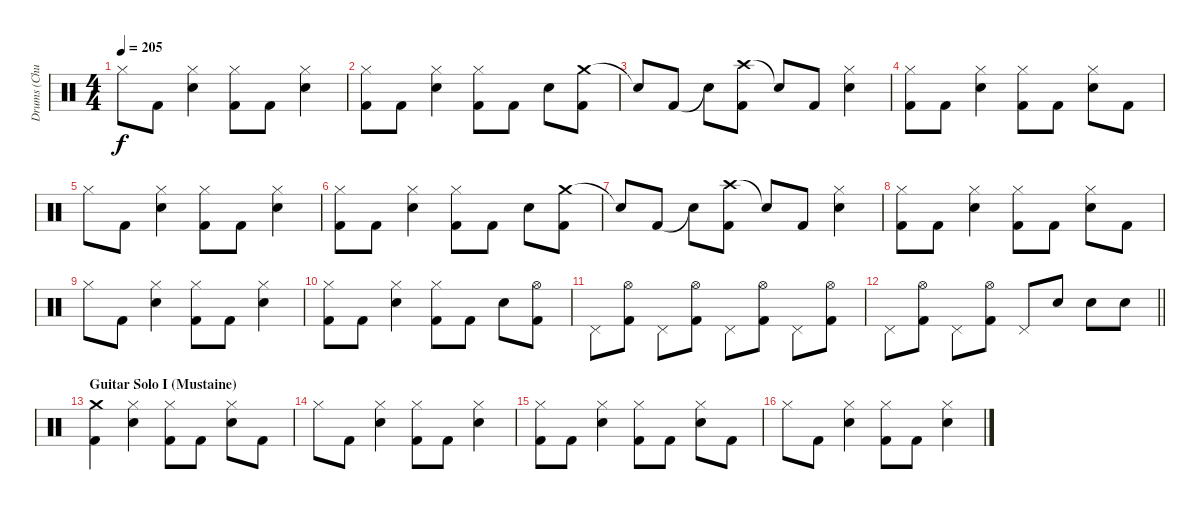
\track ("Drums (Chuck Behler)" "Drums (Chu") {instrument percussion}
\staff {score}
\articulation defaults
\ts (4 4)
\tempo 205
\clef neutral
\ks c "Hi-Hat (closed)".8{dy f} "Kick (hit) 2".8
("Hi-Hat (closed)" "Electric Snare (hit)").4 ("Hi-Hat (closed)" "Kick (hit) 2").8 "Kick (hit) 2".8 ("Hi-Hat (closed)" "Electric Snare (hit)").4 |
("Hi-Hat (closed)" "Kick (hit) 2").8 "Kick (hit) 2".8 ("Hi-Hat (closed)" "Electric Snare (hit)").4 ("Hi-Hat (closed)" "Kick (hit) 2").8 "Kick (hit) 2".8 "Electric Snare (hit)".8 ("Crash medium (hit)" "Kick (hit) 2").8 |
"Snare (hit)"{t}.8 "Kick (hit) 2".8 "Snare (hit)"{t}.8 ("Crash high (hit)" "Kick (hit) 2").8 "Snare (hit)"{t}.8 "Kick (hit) 2".8 ("Hi-Hat (closed)" "Electric Snare (hit)").4 |
("Hi-Hat (closed)" "Kick (hit) 2").8 "Kick (hit) 2".8 ("Hi-Hat (closed)" "Electric Snare (hit)").4 ("Hi-Hat (closed)" "Kick (hit) 2").8 "Kick (hit) 2".8 ("Hi-Hat (closed)" "Electric Snare (hit)").8 "Kick (hit) 2".8 |
"Hi-Hat (closed)".8 "Kick (hit) 2".8 ("Hi-Hat (closed)" "Electric Snare (hit)").4 ("Hi-Hat (closed)" "Kick (hit) 2").8 "Kick (hit) 2".8 ("Hi-Hat (closed)" "Electric Snare (hit)").4 |
("Hi-Hat (closed)" "Kick (hit) 2").8 "Kick (hit) 2".8 ("Hi-Hat (closed)" "Electric Snare (hit)").4 ("Hi-Hat (closed)" "Kick (hit) 2").8 "Kick (hit) 2".8 "Electric Snare (hit)".8 ("Crash medium (hit)" "Kick (hit) 2").8 |
"Snare (hit)"{t}.8 "Kick (hit) 2".8 "Snare (hit)"{t}.8 ("Crash high (hit)" "Kick (hit) 2").8 "Snare (hit)"{t}.8 "Kick (hit) 2".8 ("Hi-Hat (closed)" "Electric Snare (hit)").4 |
("Hi-Hat (closed)" "Kick (hit) 2").8 "Kick (hit) 2".8 ("Hi-Hat (closed)" "Electric Snare (hit)").4 ("Hi-Hat (closed)" "Kick (hit) 2").8 "Kick (hit) 2".8 ("Hi-Hat (closed)" "Electric Snare (hit)").8 "Kick (hit) 2".8 |
"Hi-Hat (closed)".8 "Kick (hit) 2".8 ("Hi-Hat (closed)" "Electric Snare (hit)").4 ("Hi-Hat (closed)" "Kick (hit) 2").8 "Kick (hit) 2".8 ("Hi-Hat (closed)" "Electric Snare (hit)").4 |
("Hi-Hat (closed)" "Kick (hit) 2").8 "Kick (hit) 2".8 ("Hi-Hat (closed)" "Electric Snare (hit)").4 ("Hi-Hat (closed)" "Kick (hit) 2").8 "Kick (hit) 2".8 "Electric Snare (hit)".8 ("Hi-Hat (open)" "Kick (hit) 2").8 |
"Pedal Hi-Hat (hit)".8 ("Hi-Hat (open)" "Kick (hit) 2").8 "Pedal Hi-Hat (hit)".8 ("Hi-Hat (open)" "Kick (hit) 2").8 "Pedal Hi-Hat (hit)".8 ("Hi-Hat (open)" "Kick (hit) 2").8 "Pedal Hi-Hat (hit)".8 ("Hi-Hat (open)" "Kick (hit) 2").8 |
\barLineRight lightlight "Pedal Hi-Hat (hit)".8
("Hi-Hat (open)" "Kick (hit) 2").8 "Pedal Hi-Hat (hit)".8 ("Hi-Hat (open)" "Kick (hit) 2").8 "Pedal Hi-Hat (hit)".8 "Electric Snare (hit)".8 "Electric Snare (hit)".8 "Electric Snare (hit)".8 |
\section ("" "Guitar Solo I (Mustaine)")
("Crash medium (hit)" "Kick (hit) 2").4 ("Hi-Hat (closed)" "Electric Snare (hit)").4 ("Hi-Hat (closed)" "Kick (hit) 2").8 "Kick (hit) 2".8 ("Hi-Hat (closed)" "Electric Snare (hit)").8 "Kick (hit) 2".8 |
"Hi-Hat (closed)".8 "Kick (hit) 2".8 ("Hi-Hat (closed)" "Electric Snare (hit)").4 ("Hi-Hat (closed)" "Kick (hit) 2").8 "Kick (hit) 2".8 ("Hi-Hat (closed)" "Electric Snare (hit)").4 |
("Hi-Hat (closed)" "Kick (hit) 2").8 "Kick (hit) 2".8 ("Hi-Hat (closed)" "Electric Snare (hit)").4 ("Hi-Hat (closed)" "Kick (hit) 2").8 "Kick (hit) 2".8 ("Hi-Hat (closed)" "Electric Snare (hit)").8 "Kick (hit) 2".8 |
"Hi-Hat (closed)".8 "Kick (hit) 2".8 ("Hi-Hat (closed)" "Electric Snare (hit)").4 ("Hi-Hat (closed)" "Kick (hit) 2").8 "Kick (hit) 2".8 ("Hi-Hat (closed)" "Electric Snare (hit)").4
